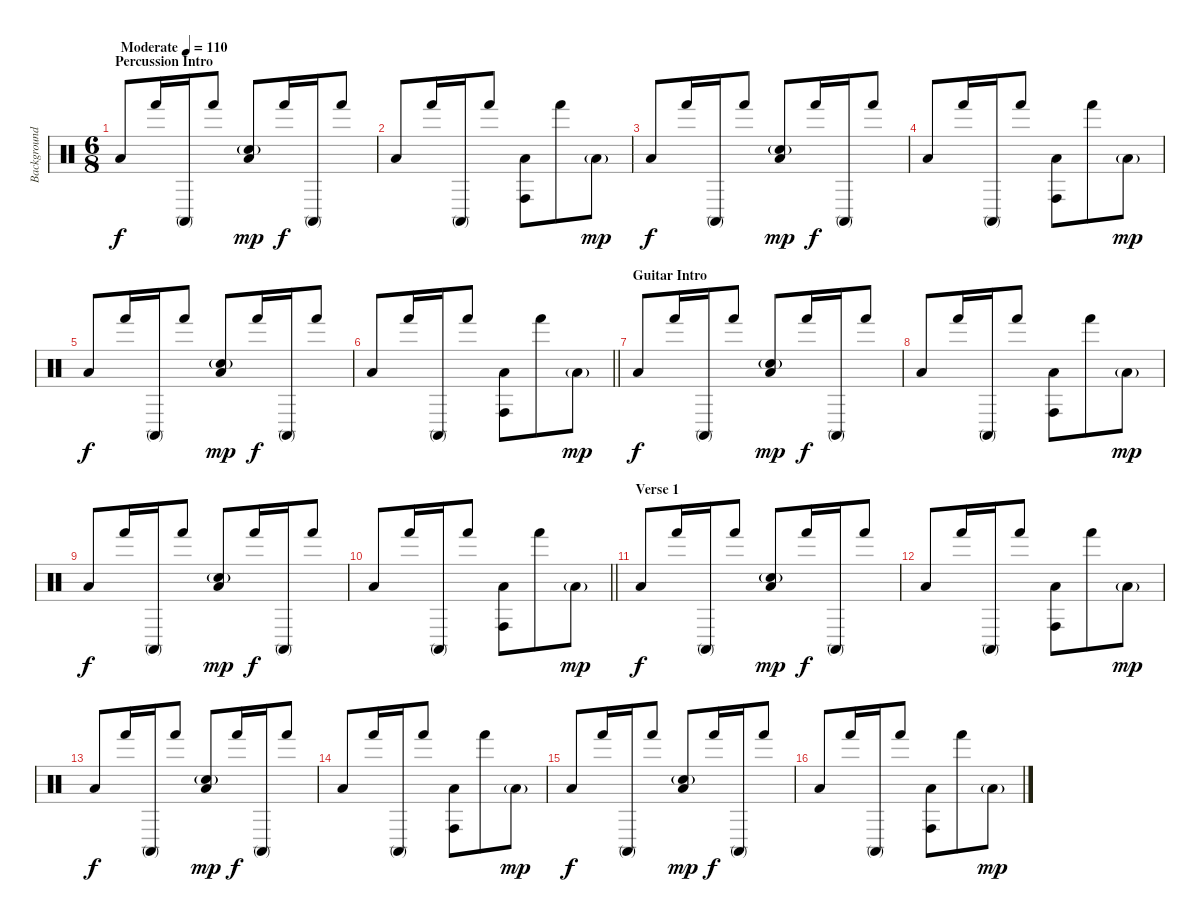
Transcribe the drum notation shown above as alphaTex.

\track ("Background Percussion" "Background") {instrument percussion}
\staff {score}
\articulation defaults
\ts (6 8)
\section ("" "Percussion Intro")
\tempo (110 "Moderate")
\clef neutral
\ks c "Low Tom (hit)".8{dy f} "Hand (hit)".16 "Conga high (mute)".16 "Hand (hit)".8
("Snare (hit) 2"{g} "Low Tom (hit)").8{dy mp} "Hand (hit)".16{dy f} "Conga high (mute)".16 "Hand (hit)".8 |
"Low Tom (hit)".8 "Hand (hit)".16 "Conga high (mute)".16 "Hand (hit)".8 ("Conga high (hit)" "Low Tom (hit)").8 "Hand (hit)".8 "Low Tom (hit)"{g}.8{dy mp} |
"Low Tom (hit)".8{dy f} "Hand (hit)".16 "Conga high (mute)".16 "Hand (hit)".8 ("Snare (hit) 2"{g} "Low Tom (hit)").8{dy mp} "Hand (hit)".16{dy f} "Conga high (mute)".16 "Hand (hit)".8 |
"Low Tom (hit)".8 "Hand (hit)".16 "Conga high (mute)".16 "Hand (hit)".8 ("Conga high (hit)" "Low Tom (hit)").8 "Hand (hit)".8 "Low Tom (hit)"{g}.8{dy mp} |
"Low Tom (hit)".8{dy f} "Hand (hit)".16 "Conga high (mute)".16 "Hand (hit)".8 ("Snare (hit) 2"{g} "Low Tom (hit)").8{dy mp} "Hand (hit)".16{dy f} "Conga high (mute)".16 "Hand (hit)".8 |
\barLineRight lightlight "Low Tom (hit)".8 "Hand (hit)".16 "Conga high (mute)".16 "Hand (hit)".8
("Conga high (hit)" "Low Tom (hit)").8 "Hand (hit)".8 "Low Tom (hit)"{g}.8{dy mp} |
\section ("" "Guitar Intro")
"Low Tom (hit)".8{dy f} "Hand (hit)".16 "Conga high (mute)".16 "Hand (hit)".8 ("Snare (hit) 2"{g} "Low Tom (hit)").8{dy mp} "Hand (hit)".16{dy f} "Conga high (mute)".16 "Hand (hit)".8 |
"Low Tom (hit)".8 "Hand (hit)".16 "Conga high (mute)".16 "Hand (hit)".8 ("Conga high (hit)" "Low Tom (hit)").8 "Hand (hit)".8 "Low Tom (hit)"{g}.8{dy mp} |
"Low Tom (hit)".8{dy f} "Hand (hit)".16 "Conga high (mute)".16 "Hand (hit)".8 ("Snare (hit) 2"{g} "Low Tom (hit)").8{dy mp} "Hand (hit)".16{dy f} "Conga high (mute)".16 "Hand (hit)".8 |
\barLineRight lightlight "Low Tom (hit)".8 "Hand (hit)".16 "Conga high (mute)".16 "Hand (hit)".8
("Conga high (hit)" "Low Tom (hit)").8 "Hand (hit)".8 "Low Tom (hit)"{g}.8{dy mp} |
\section ("" "Verse 1")
"Low Tom (hit)".8{dy f} "Hand (hit)".16 "Conga high (mute)".16 "Hand (hit)".8 ("Snare (hit) 2"{g} "Low Tom (hit)").8{dy mp} "Hand (hit)".16{dy f} "Conga high (mute)".16 "Hand (hit)".8 |
"Low Tom (hit)".8 "Hand (hit)".16 "Conga high (mute)".16 "Hand (hit)".8 ("Conga high (hit)" "Low Tom (hit)").8 "Hand (hit)".8 "Low Tom (hit)"{g}.8{dy mp} |
"Low Tom (hit)".8{dy f} "Hand (hit)".16 "Conga high (mute)".16 "Hand (hit)".8 ("Snare (hit) 2"{g} "Low Tom (hit)").8{dy mp} "Hand (hit)".16{dy f} "Conga high (mute)".16 "Hand (hit)".8 |
"Low Tom (hit)".8 "Hand (hit)".16 "Conga high (mute)".16 "Hand (hit)".8 ("Conga high (hit)" "Low Tom (hit)").8 "Hand (hit)".8 "Low Tom (hit)"{g}.8{dy mp} |
"Low Tom (hit)".8{dy f} "Hand (hit)".16 "Conga high (mute)".16 "Hand (hit)".8 ("Snare (hit) 2"{g} "Low Tom (hit)").8{dy mp} "Hand (hit)".16{dy f} "Conga high (mute)".16 "Hand (hit)".8 |
"Low Tom (hit)".8 "Hand (hit)".16 "Conga high (mute)".16 "Hand (hit)".8 ("Conga high (hit)" "Low Tom (hit)").8 "Hand (hit)".8 "Low Tom (hit)"{g}.8{dy mp}
